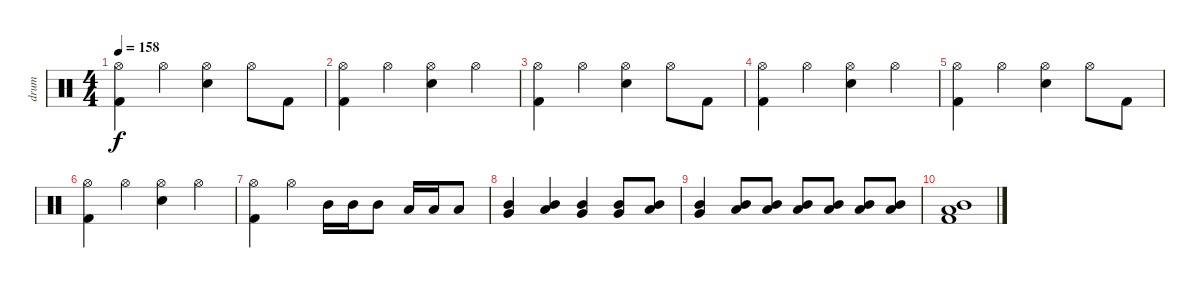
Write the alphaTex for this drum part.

\track ("drum" "drum") {instrument percussion}
\staff {score}
\articulation defaults
\ts (4 4)
\tempo 158
\clef neutral
\ks c
("Hi-Hat (open)" "Kick (hit) 2").4{dy f} "Hi-Hat (open)".4 ("Hi-Hat (open)" "Electric Snare (hit)").4 "Hi-Hat (open)".8 "Kick (hit) 2".8 |
("Hi-Hat (open)" "Kick (hit) 2").4 "Hi-Hat (open)".4 ("Hi-Hat (open)" "Electric Snare (hit)").4 "Hi-Hat (open)".4 |
("Hi-Hat (open)" "Kick (hit) 2").4 "Hi-Hat (open)".4 ("Hi-Hat (open)" "Electric Snare (hit)").4 "Hi-Hat (open)".8 "Kick (hit) 2".8 |
("Hi-Hat (open)" "Kick (hit) 2").4 "Hi-Hat (open)".4 ("Hi-Hat (open)" "Electric Snare (hit)").4 "Hi-Hat (open)".4 |
("Hi-Hat (open)" "Kick (hit) 2").4 "Hi-Hat (open)".4 ("Hi-Hat (open)" "Electric Snare (hit)").4 "Hi-Hat (open)".8 "Kick (hit) 2".8 |
("Hi-Hat (open)" "Kick (hit) 2").4 "Hi-Hat (open)".4 ("Hi-Hat (open)" "Electric Snare (hit)").4 "Hi-Hat (open)".4 |
("Hi-Hat (open)" "Kick (hit) 2").4 "Hi-Hat (open)".4 "Mid Tom (hit)".16 "Mid Tom (hit)".16 "Mid Tom (hit)".8 "Low Tom (hit)".16 "Low Tom (hit)".16 "Low Tom (hit)".8 |
("Mid Tom (hit)" "Very Low Tom (hit)").4 ("Low Tom (hit)" "Mid Tom (hit)").4 ("Mid Tom (hit)" "Very Low Tom (hit)").4 ("Mid Tom (hit)" "Very Low Tom (hit)").8 ("Mid Tom (hit)" "Low Tom (hit)").8 |
("Mid Tom (hit)" "Very Low Tom (hit)").4 ("Mid Tom (hit)" "Low Floor Tom (hit)").8 ("Mid Tom (hit)" "Low Floor Tom (hit)").8 ("Mid Tom (hit)" "Low Floor Tom (hit)").8 ("Mid Tom (hit)" "Low Floor Tom (hit)").8 ("Mid Tom (hit)" "Low Floor Tom (hit)").8 ("Mid Tom (hit)" "Low Floor Tom (hit)").8 |
("Mid Tom (hit)" "Low Floor Tom (hit)" "Kick (hit) 2").1
